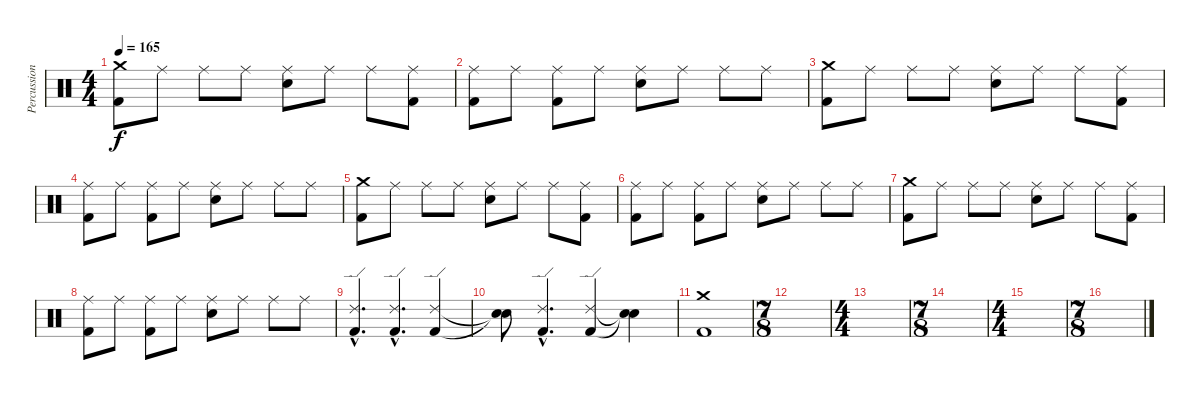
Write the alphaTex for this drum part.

\track ("Percussion" "Percussion") {instrument percussion}
\staff {score}
\articulation defaults
\ts (4 4)
\tempo 165
\clef neutral
\ks c
("Crash medium (hit)" "Kick (hit) 2").8{dy f} "Ride (middle)".8 "Ride (middle)".8 "Ride (middle)".8 ("Ride (middle)" "Electric Snare (hit)").8 "Ride (middle)".8 "Ride (middle)".8 ("Ride (middle)" "Kick (hit) 2").8 |
("Ride (middle)" "Kick (hit) 2").8 "Ride (middle)".8 ("Ride (middle)" "Kick (hit) 2").8 "Ride (middle)".8 ("Ride (middle)" "Electric Snare (hit)").8 "Ride (middle)".8 "Ride (middle)".8 "Ride (middle)".8 |
("Crash medium (hit)" "Kick (hit) 2").8 "Ride (middle)".8 "Ride (middle)".8 "Ride (middle)".8 ("Ride (middle)" "Electric Snare (hit)").8 "Ride (middle)".8 "Ride (middle)".8 ("Ride (middle)" "Kick (hit) 2").8 |
("Ride (middle)" "Kick (hit) 2").8 "Ride (middle)".8 ("Ride (middle)" "Kick (hit) 2").8 "Ride (middle)".8 ("Ride (middle)" "Electric Snare (hit)").8 "Ride (middle)".8 "Ride (middle)".8 "Ride (middle)".8 |
("Crash medium (hit)" "Kick (hit) 2").8 "Ride (middle)".8 "Ride (middle)".8 "Ride (middle)".8 ("Ride (middle)" "Electric Snare (hit)").8 "Ride (middle)".8 "Ride (middle)".8 ("Ride (middle)" "Kick (hit) 2").8 |
("Ride (middle)" "Kick (hit) 2").8 "Ride (middle)".8 ("Ride (middle)" "Kick (hit) 2").8 "Ride (middle)".8 ("Ride (middle)" "Electric Snare (hit)").8 "Ride (middle)".8 "Ride (middle)".8 "Ride (middle)".8 |
("Crash medium (hit)" "Kick (hit) 2").8 "Ride (middle)".8 "Ride (middle)".8 "Ride (middle)".8 ("Ride (middle)" "Electric Snare (hit)").8 "Ride (middle)".8 "Ride (middle)".8 ("Ride (middle)" "Kick (hit) 2").8 |
("Ride (middle)" "Kick (hit) 2").8 "Ride (middle)".8 ("Ride (middle)" "Kick (hit) 2").8 "Ride (middle)".8 ("Ride (middle)" "Electric Snare (hit)").8 "Ride (middle)".8 "Ride (middle)".8 "Ride (middle)".8 |
("Ride (edge) 2"{hac} "Kick (hit) 2"{hac}).4{d} ("Ride (edge) 2"{hac} "Kick (hit) 2"{hac}).4{d} ("Ride (edge) 2" "Kick (hit) 2").4 |
("Snare (hit)"{t} "Snare (hit)"{t}).8 ("Ride (edge) 2"{hac} "Kick (hit) 2"{hac}).4{d} ("Ride (edge) 2" "Kick (hit) 2").4 ("Snare (hit)"{t} "Snare (hit)"{t}).4 |
("Crash medium (hit)" "Kick (hit) 2").1 |
\ts (7 8)
|
\ts (4 4)
|
\ts (7 8)
|
\ts (4 4)
|
\ts (7 8)
